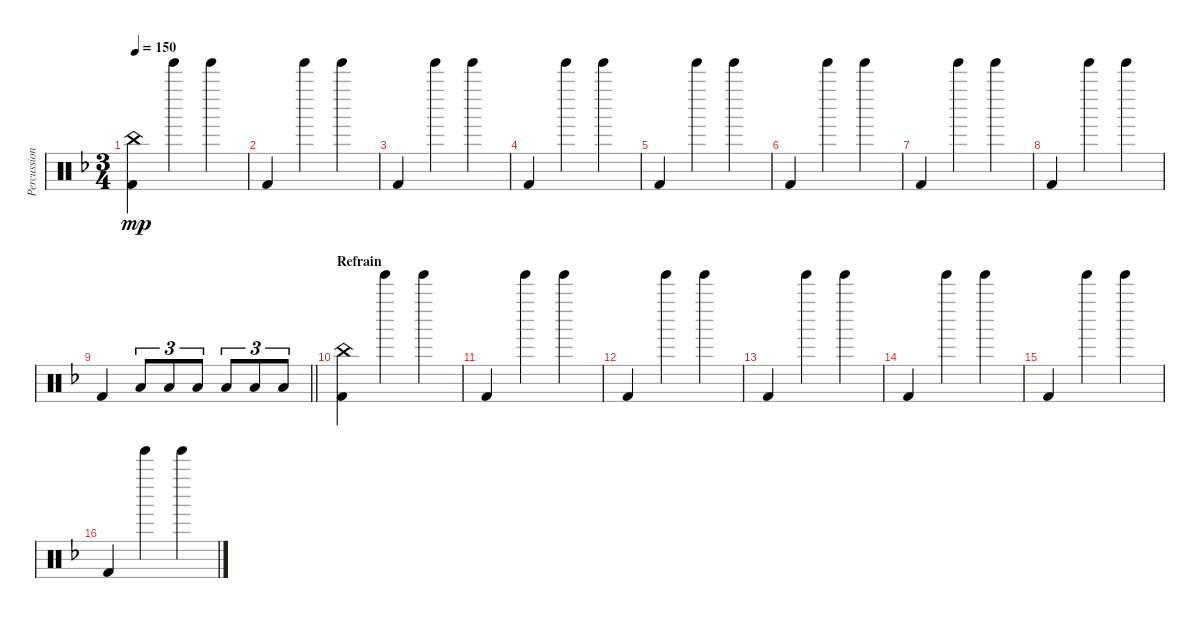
\track ("Percussions" "Percussion") {instrument percussion}
\staff {score}
\articulation defaults
\ts (3 4)
\tempo 150
\clef neutral
\ks f
("China (hit)" "Kick (hit) 2").4{dy mp} "Tinkle Bell (hit)".4 "Tinkle Bell (hit)".4 |
"Kick (hit) 2".4 "Tinkle Bell (hit)".4 "Tinkle Bell (hit)".4 |
"Kick (hit) 2".4 "Tinkle Bell (hit)".4 "Tinkle Bell (hit)".4 |
"Kick (hit) 2".4 "Tinkle Bell (hit)".4 "Tinkle Bell (hit)".4 |
"Kick (hit) 2".4 "Tinkle Bell (hit)".4 "Tinkle Bell (hit)".4 |
"Kick (hit) 2".4 "Tinkle Bell (hit)".4 "Tinkle Bell (hit)".4 |
"Kick (hit) 2".4 "Tinkle Bell (hit)".4 "Tinkle Bell (hit)".4 |
"Kick (hit) 2".4 "Tinkle Bell (hit)".4 "Tinkle Bell (hit)".4 |
\barLineRight lightlight "Kick (hit) 2".4 "Low Tom (hit)".8{tu (3 2)} "Low Tom (hit)".8{tu (3 2)} "Low Tom (hit)".8{tu (3 2)} "Low Tom (hit)".8{tu (3 2)} "Low Tom (hit)".8{tu (3 2)} "Low Tom (hit)".8{tu (3 2)}
|
\section ("" "Refrain")
("China (hit)" "Kick (hit) 2").4 "Tinkle Bell (hit)".4 "Tinkle Bell (hit)".4 |
"Kick (hit) 2".4 "Tinkle Bell (hit)".4 "Tinkle Bell (hit)".4 |
"Kick (hit) 2".4 "Tinkle Bell (hit)".4 "Tinkle Bell (hit)".4 |
"Kick (hit) 2".4 "Tinkle Bell (hit)".4 "Tinkle Bell (hit)".4 |
"Kick (hit) 2".4 "Tinkle Bell (hit)".4 "Tinkle Bell (hit)".4 |
"Kick (hit) 2".4 "Tinkle Bell (hit)".4 "Tinkle Bell (hit)".4 |
"Kick (hit) 2".4 "Tinkle Bell (hit)".4 "Tinkle Bell (hit)".4
